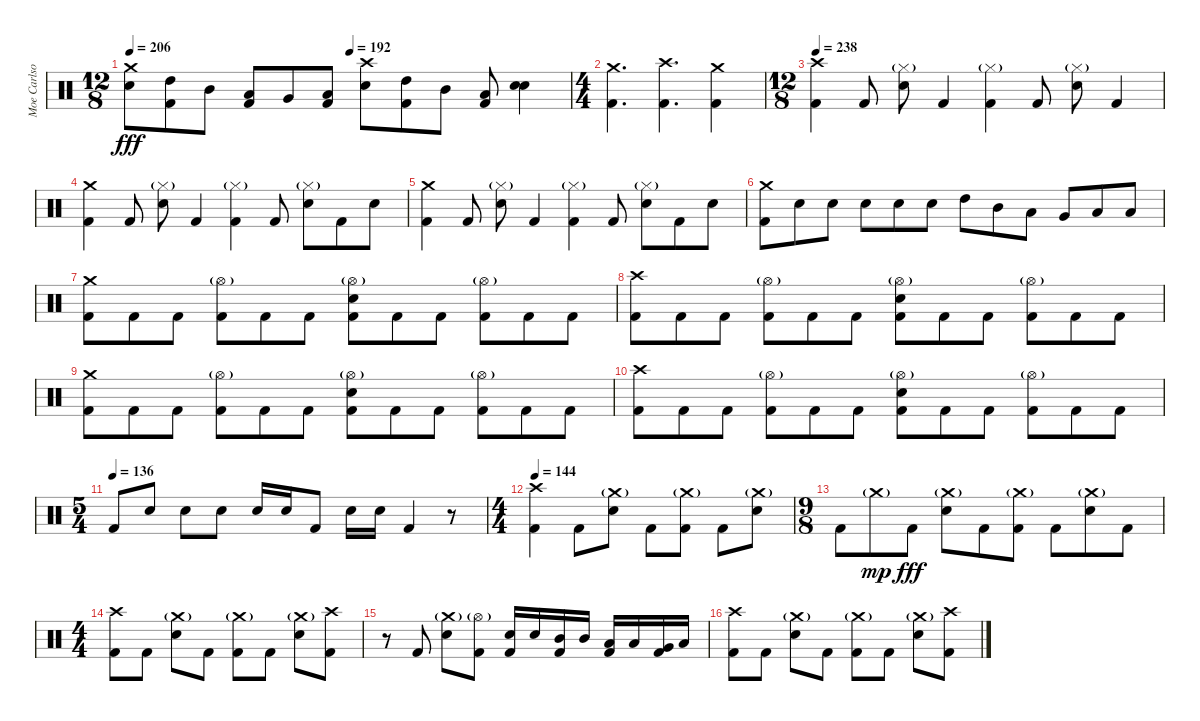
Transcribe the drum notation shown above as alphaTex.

\track ("Moe Carlson" "Moe Carlso") {instrument percussion}
\staff {score}
\articulation defaults
\ts (12 8)
\tempo 206
\tempo (192 0.5)
\clef neutral
\ks c
("Crash medium (hit)" "Electric Snare (hit)").8{dy fff} ("High Tom (hit)" "Kick (hit) 2").8 "Mid Tom (hit)".8 ("Low Tom (hit)" "Kick (hit) 2").8 "Very Low Tom (hit)".8 ("Low Floor Tom (hit)" "Kick (hit) 2").8 ("Crash high (hit)" "Electric Snare (hit)").8 ("High Tom (hit)" "Kick (hit) 2").8 "Mid Tom (hit)".8 ("Low Tom (hit)" "Kick (hit) 2").8 ("Electric Snare (hit)" "Electric Snare (hit)").4 |
\ts (4 4)
("Crash medium (hit)" "Kick (hit) 2").4{d} ("Crash high (hit)" "Kick (hit) 2").4{d} ("Crash medium (hit)" "Kick (hit) 2").4 |
\ts (12 8)
\tempo 238
("Crash high (hit)" "Kick (hit) 2").4 "Kick (hit) 2".8 ("Hi-Hat (closed)"{g} "Electric Snare (hit)").8 "Kick (hit) 2".4 ("Hi-Hat (closed)"{g} "Kick (hit) 2").4 "Kick (hit) 2".8 ("Hi-Hat (closed)"{g} "Electric Snare (hit)").8 "Kick (hit) 2".4 |
("Crash medium (hit)" "Kick (hit) 2").4 "Kick (hit) 2".8 ("Hi-Hat (closed)"{g} "Electric Snare (hit)").8 "Kick (hit) 2".4 ("Hi-Hat (closed)"{g} "Kick (hit) 2").4 "Kick (hit) 2".8 ("Hi-Hat (closed)"{g} "Electric Snare (hit)").8 "Kick (hit) 2".8 "Electric Snare (hit)".8 |
("Crash medium (hit)" "Kick (hit) 2").4 "Kick (hit) 2".8 ("Hi-Hat (closed)"{g} "Electric Snare (hit)").8 "Kick (hit) 2".4 ("Hi-Hat (closed)"{g} "Kick (hit) 2").4 "Kick (hit) 2".8 ("Hi-Hat (closed)"{g} "Electric Snare (hit)").8 "Kick (hit) 2".8 "Electric Snare (hit)".8 |
("Crash medium (hit)" "Kick (hit) 2").8 "Electric Snare (hit)".8 "Electric Snare (hit)".8 "Electric Snare (hit)".8 "Electric Snare (hit)".8 "Electric Snare (hit)".8 "High Tom (hit)".8 "Mid Tom (hit)".8 "Low Tom (hit)".8 "Very Low Tom (hit)".8 "Low Floor Tom (hit)".8 "Low Floor Tom (hit)".8 |
("Crash medium (hit)" "Kick (hit) 2").8 "Kick (hit) 2".8 "Kick (hit) 2".8 ("Hi-Hat (open)"{g} "Kick (hit) 2").8 "Kick (hit) 2".8 "Kick (hit) 2".8 ("Hi-Hat (open)"{g} "Electric Snare (hit)" "Kick (hit) 2").8 "Kick (hit) 2".8 "Kick (hit) 2".8 ("Hi-Hat (open)"{g} "Kick (hit) 2").8 "Kick (hit) 2".8 "Kick (hit) 2".8 |
("Crash high (hit)" "Kick (hit) 2").8 "Kick (hit) 2".8 "Kick (hit) 2".8 ("Hi-Hat (open)"{g} "Kick (hit) 2").8 "Kick (hit) 2".8 "Kick (hit) 2".8 ("Hi-Hat (open)"{g} "Electric Snare (hit)" "Kick (hit) 2").8 "Kick (hit) 2".8 "Kick (hit) 2".8 ("Hi-Hat (open)"{g} "Kick (hit) 2").8 "Kick (hit) 2".8 "Kick (hit) 2".8 |
("Crash medium (hit)" "Kick (hit) 2").8 "Kick (hit) 2".8 "Kick (hit) 2".8 ("Hi-Hat (open)"{g} "Kick (hit) 2").8 "Kick (hit) 2".8 "Kick (hit) 2".8 ("Hi-Hat (open)"{g} "Electric Snare (hit)" "Kick (hit) 2").8 "Kick (hit) 2".8 "Kick (hit) 2".8 ("Hi-Hat (open)"{g} "Kick (hit) 2").8 "Kick (hit) 2".8 "Kick (hit) 2".8 |
("Crash high (hit)" "Kick (hit) 2").8 "Kick (hit) 2".8 "Kick (hit) 2".8 ("Hi-Hat (open)"{g} "Kick (hit) 2").8 "Kick (hit) 2".8 "Kick (hit) 2".8 ("Hi-Hat (open)"{g} "Electric Snare (hit)" "Kick (hit) 2").8 "Kick (hit) 2".8 "Kick (hit) 2".8 ("Hi-Hat (open)"{g} "Kick (hit) 2").8 "Kick (hit) 2".8 "Kick (hit) 2".8 |
\ts (5 4)
\tempo (136)
"Kick (hit) 2".8 "Electric Snare (hit)".8 "Electric Snare (hit)".8 "Electric Snare (hit)".8 "Electric Snare (hit)".16 "Electric Snare (hit)".16 "Kick (hit) 2".8 "Electric Snare (hit)".16 "Electric Snare (hit)".16 "Kick (hit) 2".4 r.8 |
\ts (4 4)
\tempo 144
("Crash high (hit)" "Kick (hit) 2").4 "Kick (hit) 2".8 ("Crash medium (hit)"{g} "Electric Snare (hit)").8 "Kick (hit) 2".8 ("Crash medium (hit)"{g} "Kick (hit) 2").8 "Kick (hit) 2".8 ("Crash medium (hit)"{g} "Electric Snare (hit)").8 |
\ts (9 8)
"Kick (hit) 2".8 "Crash medium (hit)"{g}.8{dy mp} "Kick (hit) 2".8{dy fff} ("Crash medium (hit)"{g} "Electric Snare (hit)").8 "Kick (hit) 2".8 ("Crash medium (hit)"{g} "Kick (hit) 2").8 "Kick (hit) 2".8 ("Crash medium (hit)"{g} "Electric Snare (hit)").8 "Kick (hit) 2".8 |
\ts (4 4)
("Crash high (hit)" "Kick (hit) 2").8 "Kick (hit) 2".8 ("Crash medium (hit)"{g} "Electric Snare (hit)").8 "Kick (hit) 2".8 ("Crash medium (hit)"{g} "Kick (hit) 2").8 "Kick (hit) 2".8 ("Crash medium (hit)"{g} "Electric Snare (hit)").8 ("Crash high (hit)" "Kick (hit) 2").8 |
r.8 "Kick (hit) 2".8 ("Crash medium (hit)"{g} "Electric Snare (hit)").8 ("Hi-Hat (open)"{g} "Kick (hit) 2").8 ("Electric Snare (hit)" "Kick (hit) 2").16 "Electric Snare (hit)".16 ("Mid Tom (hit)" "Kick (hit) 2").16 "Mid Tom (hit)".16 ("Low Tom (hit)" "Kick (hit) 2").16 "Low Tom (hit)".16 ("Very Low Tom (hit)" "Kick (hit) 2").16 "Low Floor Tom (hit)".16 |
("Crash high (hit)" "Kick (hit) 2").8 "Kick (hit) 2".8 ("Crash medium (hit)"{g} "Electric Snare (hit)").8 "Kick (hit) 2".8 ("Crash medium (hit)"{g} "Kick (hit) 2").8 "Kick (hit) 2".8 ("Crash medium (hit)"{g} "Electric Snare (hit)").8 ("Crash high (hit)" "Kick (hit) 2").8
